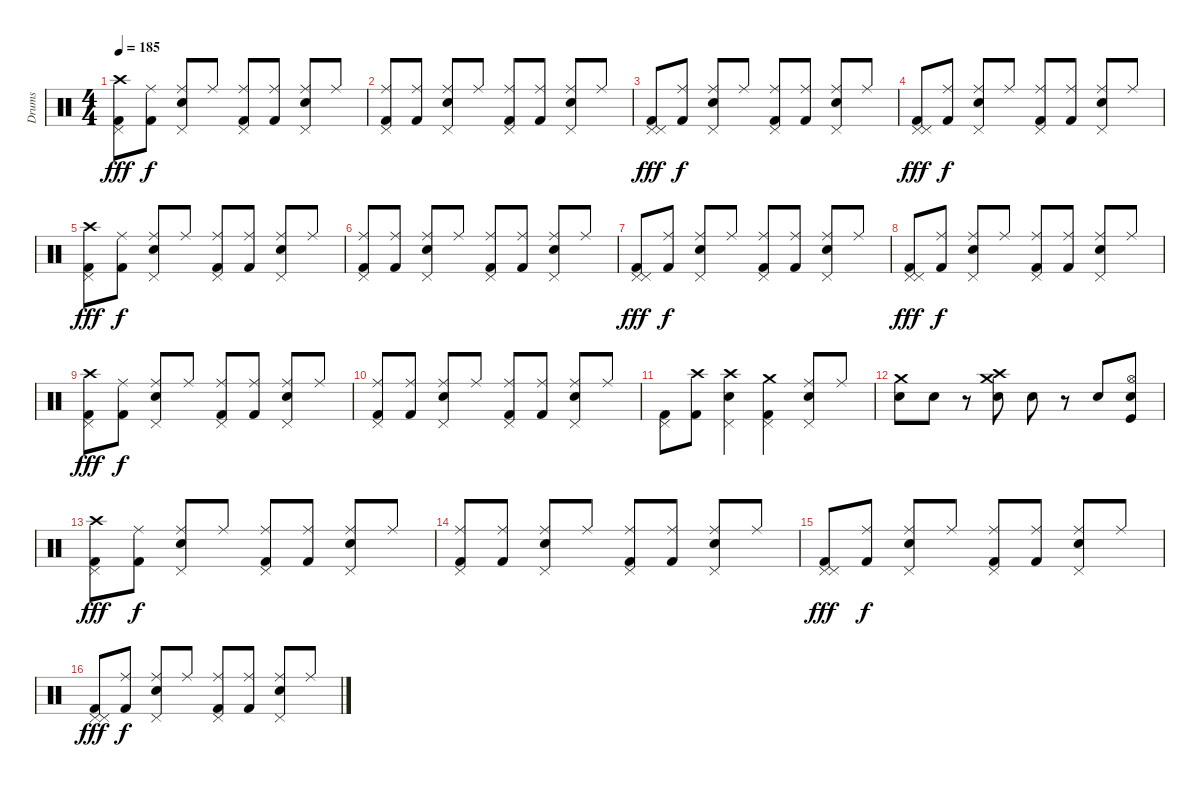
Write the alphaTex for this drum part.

\track ("Drums" "Drums") {instrument percussion}
\staff {score}
\articulation defaults
\ts (4 4)
\tempo 185
\clef neutral
\ks c
("Crash high (hit)" "Pedal Hi-Hat (hit)" "Kick (hit) 2").8{dy fff} ("Ride (middle)" "Kick (hit) 2").8{dy f} ("Pedal Hi-Hat (hit)" "Ride (middle)" "Snare (hit) 2").8 "Ride (middle)".8 ("Pedal Hi-Hat (hit)" "Ride (middle)" "Kick (hit) 2").8 ("Ride (middle)" "Kick (hit) 2").8 ("Pedal Hi-Hat (hit)" "Ride (middle)" "Snare (hit) 2").8 "Ride (middle)".8 |
("Pedal Hi-Hat (hit)" "Ride (middle)" "Kick (hit) 2").8 ("Ride (middle)" "Kick (hit) 2").8 ("Pedal Hi-Hat (hit)" "Ride (middle)" "Snare (hit) 2").8 "Ride (middle)".8 ("Pedal Hi-Hat (hit)" "Ride (middle)" "Kick (hit) 2").8 ("Ride (middle)" "Kick (hit) 2").8 ("Pedal Hi-Hat (hit)" "Ride (middle)" "Snare (hit) 2").8 "Ride (middle)".8 |
("Pedal Hi-Hat (hit)" "Pedal Hi-Hat (hit)" "Kick (hit) 2").8{dy fff} ("Ride (middle)" "Kick (hit) 2").8{dy f} ("Pedal Hi-Hat (hit)" "Ride (middle)" "Snare (hit) 2").8 "Ride (middle)".8 ("Pedal Hi-Hat (hit)" "Ride (middle)" "Kick (hit) 2").8 ("Ride (middle)" "Kick (hit) 2").8 ("Pedal Hi-Hat (hit)" "Ride (middle)" "Snare (hit) 2").8 "Ride (middle)".8 |
("Pedal Hi-Hat (hit)" "Pedal Hi-Hat (hit)" "Kick (hit) 2").8{dy fff} ("Ride (middle)" "Kick (hit) 2").8{dy f} ("Pedal Hi-Hat (hit)" "Ride (middle)" "Snare (hit) 2").8 "Ride (middle)".8 ("Pedal Hi-Hat (hit)" "Ride (middle)" "Kick (hit) 2").8 ("Ride (middle)" "Kick (hit) 2").8 ("Pedal Hi-Hat (hit)" "Ride (middle)" "Snare (hit) 2").8 "Ride (middle)".8 |
("Crash high (hit)" "Pedal Hi-Hat (hit)" "Kick (hit) 2").8{dy fff} ("Ride (middle)" "Kick (hit) 2").8{dy f} ("Pedal Hi-Hat (hit)" "Ride (middle)" "Snare (hit) 2").8 "Ride (middle)".8 ("Pedal Hi-Hat (hit)" "Ride (middle)" "Kick (hit) 2").8 ("Ride (middle)" "Kick (hit) 2").8 ("Pedal Hi-Hat (hit)" "Ride (middle)" "Snare (hit) 2").8 "Ride (middle)".8 |
("Pedal Hi-Hat (hit)" "Ride (middle)" "Kick (hit) 2").8 ("Ride (middle)" "Kick (hit) 2").8 ("Pedal Hi-Hat (hit)" "Ride (middle)" "Snare (hit) 2").8 "Ride (middle)".8 ("Pedal Hi-Hat (hit)" "Ride (middle)" "Kick (hit) 2").8 ("Ride (middle)" "Kick (hit) 2").8 ("Pedal Hi-Hat (hit)" "Ride (middle)" "Snare (hit) 2").8 "Ride (middle)".8 |
("Pedal Hi-Hat (hit)" "Pedal Hi-Hat (hit)" "Kick (hit) 2").8{dy fff} ("Ride (middle)" "Kick (hit) 2").8{dy f} ("Pedal Hi-Hat (hit)" "Ride (middle)" "Snare (hit) 2").8 "Ride (middle)".8 ("Pedal Hi-Hat (hit)" "Ride (middle)" "Kick (hit) 2").8 ("Ride (middle)" "Kick (hit) 2").8 ("Pedal Hi-Hat (hit)" "Ride (middle)" "Snare (hit) 2").8 "Ride (middle)".8 |
("Pedal Hi-Hat (hit)" "Pedal Hi-Hat (hit)" "Kick (hit) 2").8{dy fff} ("Ride (middle)" "Kick (hit) 2").8{dy f} ("Pedal Hi-Hat (hit)" "Ride (middle)" "Snare (hit) 2").8 "Ride (middle)".8 ("Pedal Hi-Hat (hit)" "Ride (middle)" "Kick (hit) 2").8 ("Ride (middle)" "Kick (hit) 2").8 ("Pedal Hi-Hat (hit)" "Ride (middle)" "Snare (hit) 2").8 "Ride (middle)".8 |
("Crash high (hit)" "Pedal Hi-Hat (hit)" "Kick (hit) 2").8{dy fff} ("Ride (middle)" "Kick (hit) 2").8{dy f} ("Pedal Hi-Hat (hit)" "Ride (middle)" "Snare (hit) 2").8 "Ride (middle)".8 ("Pedal Hi-Hat (hit)" "Ride (middle)" "Kick (hit) 2").8 ("Ride (middle)" "Kick (hit) 2").8 ("Pedal Hi-Hat (hit)" "Ride (middle)" "Snare (hit) 2").8 "Ride (middle)".8 |
("Pedal Hi-Hat (hit)" "Ride (middle)" "Kick (hit) 2").8 ("Ride (middle)" "Kick (hit) 2").8 ("Pedal Hi-Hat (hit)" "Ride (middle)" "Snare (hit) 2").8 "Ride (middle)".8 ("Pedal Hi-Hat (hit)" "Ride (middle)" "Kick (hit) 2").8 ("Ride (middle)" "Kick (hit) 2").8 ("Pedal Hi-Hat (hit)" "Ride (middle)" "Snare (hit) 2").8 "Ride (middle)".8 |
("Pedal Hi-Hat (hit)" "Kick (hit) 2").8 ("Crash high (hit)" "Kick (hit) 2").8 ("Pedal Hi-Hat (hit)" "Crash high (hit)" "Snare (hit) 2").4 ("Pedal Hi-Hat (hit)" "Crash medium (hit)" "Kick (hit) 2").4 ("Pedal Hi-Hat (hit)" "Ride (middle)" "Snare (hit) 2").8 "Ride (middle)".8 |
("Electric Snare (hit)" "Crash medium (hit)").8 "Electric Snare (hit)".8 r.8 ("Crash high (hit)" "Crash medium (hit)" "Electric Snare (hit)").8 "Electric Snare (hit)".8 r.8 "Electric Snare (hit)".8 ("Hi-Hat (open)" "Kick (hit)" "Electric Snare (hit)").8 |
("Crash high (hit)" "Pedal Hi-Hat (hit)" "Kick (hit) 2").8{dy fff} ("Ride (middle)" "Kick (hit) 2").8{dy f} ("Pedal Hi-Hat (hit)" "Ride (middle)" "Snare (hit) 2").8 "Ride (middle)".8 ("Pedal Hi-Hat (hit)" "Ride (middle)" "Kick (hit) 2").8 ("Ride (middle)" "Kick (hit) 2").8 ("Pedal Hi-Hat (hit)" "Ride (middle)" "Snare (hit) 2").8 "Ride (middle)".8 |
("Pedal Hi-Hat (hit)" "Ride (middle)" "Kick (hit) 2").8 ("Ride (middle)" "Kick (hit) 2").8 ("Pedal Hi-Hat (hit)" "Ride (middle)" "Snare (hit) 2").8 "Ride (middle)".8 ("Pedal Hi-Hat (hit)" "Ride (middle)" "Kick (hit) 2").8 ("Ride (middle)" "Kick (hit) 2").8 ("Pedal Hi-Hat (hit)" "Ride (middle)" "Snare (hit) 2").8 "Ride (middle)".8 |
("Pedal Hi-Hat (hit)" "Pedal Hi-Hat (hit)" "Kick (hit) 2").8{dy fff} ("Ride (middle)" "Kick (hit) 2").8{dy f} ("Pedal Hi-Hat (hit)" "Ride (middle)" "Snare (hit) 2").8 "Ride (middle)".8 ("Pedal Hi-Hat (hit)" "Ride (middle)" "Kick (hit) 2").8 ("Ride (middle)" "Kick (hit) 2").8 ("Pedal Hi-Hat (hit)" "Ride (middle)" "Snare (hit) 2").8 "Ride (middle)".8 |
("Pedal Hi-Hat (hit)" "Pedal Hi-Hat (hit)" "Kick (hit) 2").8{dy fff} ("Ride (middle)" "Kick (hit) 2").8{dy f} ("Pedal Hi-Hat (hit)" "Ride (middle)" "Snare (hit) 2").8 "Ride (middle)".8 ("Pedal Hi-Hat (hit)" "Ride (middle)" "Kick (hit) 2").8 ("Ride (middle)" "Kick (hit) 2").8 ("Pedal Hi-Hat (hit)" "Ride (middle)" "Snare (hit) 2").8 "Ride (middle)".8
